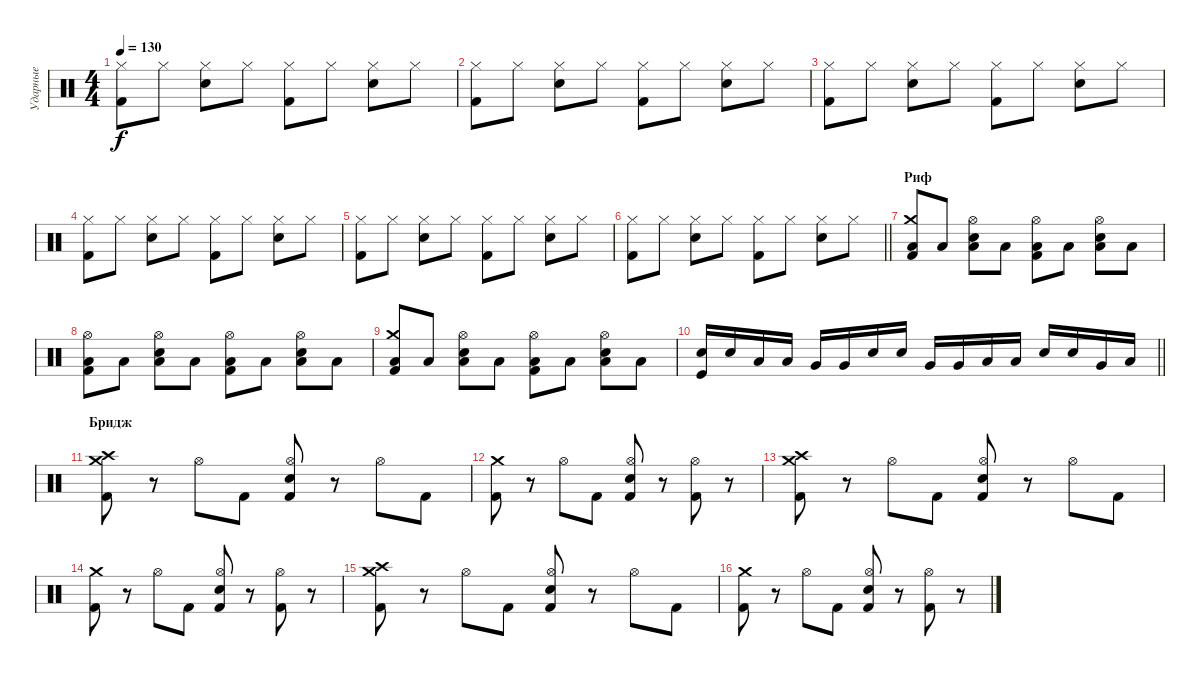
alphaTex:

\track ("Ударные" "Ударные") {instrument percussion}
\staff {score}
\articulation defaults
\ts (4 4)
\tempo 130
\clef neutral
\ks c
("Hi-Hat (closed)" "Kick (hit) 2").8{dy f} "Hi-Hat (closed)".8 ("Hi-Hat (closed)" "Electric Snare (hit)").8 "Hi-Hat (closed)".8 ("Hi-Hat (closed)" "Kick (hit) 2").8 "Hi-Hat (closed)".8 ("Hi-Hat (closed)" "Electric Snare (hit)").8 "Hi-Hat (closed)".8 |
("Hi-Hat (closed)" "Kick (hit) 2").8 "Hi-Hat (closed)".8 ("Hi-Hat (closed)" "Electric Snare (hit)").8 "Hi-Hat (closed)".8 ("Hi-Hat (closed)" "Kick (hit) 2").8 "Hi-Hat (closed)".8 ("Hi-Hat (closed)" "Electric Snare (hit)").8 "Hi-Hat (closed)".8 |
("Hi-Hat (closed)" "Kick (hit) 2").8 "Hi-Hat (closed)".8 ("Hi-Hat (closed)" "Electric Snare (hit)").8 "Hi-Hat (closed)".8 ("Hi-Hat (closed)" "Kick (hit) 2").8 "Hi-Hat (closed)".8 ("Hi-Hat (closed)" "Electric Snare (hit)").8 "Hi-Hat (closed)".8 |
("Hi-Hat (closed)" "Kick (hit) 2").8 "Hi-Hat (closed)".8 ("Hi-Hat (closed)" "Electric Snare (hit)").8 "Hi-Hat (closed)".8 ("Hi-Hat (closed)" "Kick (hit) 2").8 "Hi-Hat (closed)".8 ("Hi-Hat (closed)" "Electric Snare (hit)").8 "Hi-Hat (closed)".8 |
("Hi-Hat (closed)" "Kick (hit) 2").8 "Hi-Hat (closed)".8 ("Hi-Hat (closed)" "Electric Snare (hit)").8 "Hi-Hat (closed)".8 ("Hi-Hat (closed)" "Kick (hit) 2").8 "Hi-Hat (closed)".8 ("Hi-Hat (closed)" "Electric Snare (hit)").8 "Hi-Hat (closed)".8 |
\barLineRight lightlight
("Hi-Hat (closed)" "Kick (hit) 2").8 "Hi-Hat (closed)".8 ("Hi-Hat (closed)" "Electric Snare (hit)").8 "Hi-Hat (closed)".8 ("Hi-Hat (closed)" "Kick (hit) 2").8 "Hi-Hat (closed)".8 ("Hi-Hat (closed)" "Electric Snare (hit)").8 "Hi-Hat (closed)".8 |
\section ("" "Риф")
("Crash medium (hit)" "Kick (hit) 2" "Low Tom (hit)").8 "Low Tom (hit)".8 ("Hi-Hat (open)" "Electric Snare (hit)" "Low Tom (hit)").8 "Low Tom (hit)".8 ("Hi-Hat (open)" "Kick (hit) 2" "Low Tom (hit)").8 "Low Tom (hit)".8 ("Hi-Hat (open)" "Electric Snare (hit)" "Low Tom (hit)").8 "Low Tom (hit)".8 |
("Hi-Hat (open)" "Kick (hit) 2" "Low Tom (hit)").8 "Low Tom (hit)".8 ("Hi-Hat (open)" "Electric Snare (hit)" "Low Tom (hit)").8 "Low Tom (hit)".8 ("Hi-Hat (open)" "Kick (hit) 2" "Low Tom (hit)").8 "Low Tom (hit)".8 ("Hi-Hat (open)" "Electric Snare (hit)" "Low Tom (hit)").8 "Low Tom (hit)".8 |
("Crash medium (hit)" "Kick (hit) 2" "Low Tom (hit)").8 "Low Tom (hit)".8 ("Hi-Hat (open)" "Electric Snare (hit)" "Low Tom (hit)").8 "Low Tom (hit)".8 ("Hi-Hat (open)" "Kick (hit) 2" "Low Tom (hit)").8 "Low Tom (hit)".8 ("Hi-Hat (open)" "Electric Snare (hit)" "Low Tom (hit)").8 "Low Tom (hit)".8 |
\barLineRight lightlight
("Electric Snare (hit)" "Kick (hit)").16 "Electric Snare (hit)".16 "Low Tom (hit)".16 "Low Tom (hit)".16 "Very Low Tom (hit)".16 "Very Low Tom (hit)".16 "Electric Snare (hit)".16 "Electric Snare (hit)".16 "Very Low Tom (hit)".16 "Very Low Tom (hit)".16 "Low Floor Tom (hit)".16 "Low Floor Tom (hit)".16 "Electric Snare (hit)".16 "Electric Snare (hit)".16 "Very Low Tom (hit)".16 "Low Floor Tom (hit)".16 |
\section ("" "Бридж")
("Crash medium (hit)" "Crash high (hit)" "Kick (hit) 2").8 r.8 "Hi-Hat (open)".8 "Kick (hit) 2".8 ("Hi-Hat (open)" "Snare (hit) 2" "Kick (hit) 2").8 r.8 "Hi-Hat (open)".8 "Kick (hit) 2".8 |
("Crash medium (hit)" "Kick (hit) 2").8 r.8 "Hi-Hat (open)".8 "Kick (hit) 2".8 ("Hi-Hat (open)" "Snare (hit) 2" "Kick (hit) 2").8 r.8 ("Hi-Hat (open)" "Kick (hit) 2").8 r.8 |
("Crash medium (hit)" "Crash high (hit)" "Kick (hit) 2").8 r.8 "Hi-Hat (open)".8 "Kick (hit) 2".8 ("Hi-Hat (open)" "Snare (hit) 2" "Kick (hit) 2").8 r.8 "Hi-Hat (open)".8 "Kick (hit) 2".8 |
("Crash medium (hit)" "Kick (hit) 2").8 r.8 "Hi-Hat (open)".8 "Kick (hit) 2".8 ("Hi-Hat (open)" "Snare (hit) 2" "Kick (hit) 2").8 r.8 ("Hi-Hat (open)" "Kick (hit) 2").8 r.8 |
("Crash medium (hit)" "Crash high (hit)" "Kick (hit) 2").8 r.8 "Hi-Hat (open)".8 "Kick (hit) 2".8 ("Hi-Hat (open)" "Snare (hit) 2" "Kick (hit) 2").8 r.8 "Hi-Hat (open)".8 "Kick (hit) 2".8 |
("Crash medium (hit)" "Kick (hit) 2").8 r.8 "Hi-Hat (open)".8 "Kick (hit) 2".8 ("Hi-Hat (open)" "Snare (hit) 2" "Kick (hit) 2").8 r.8 ("Hi-Hat (open)" "Kick (hit) 2").8 r.8
